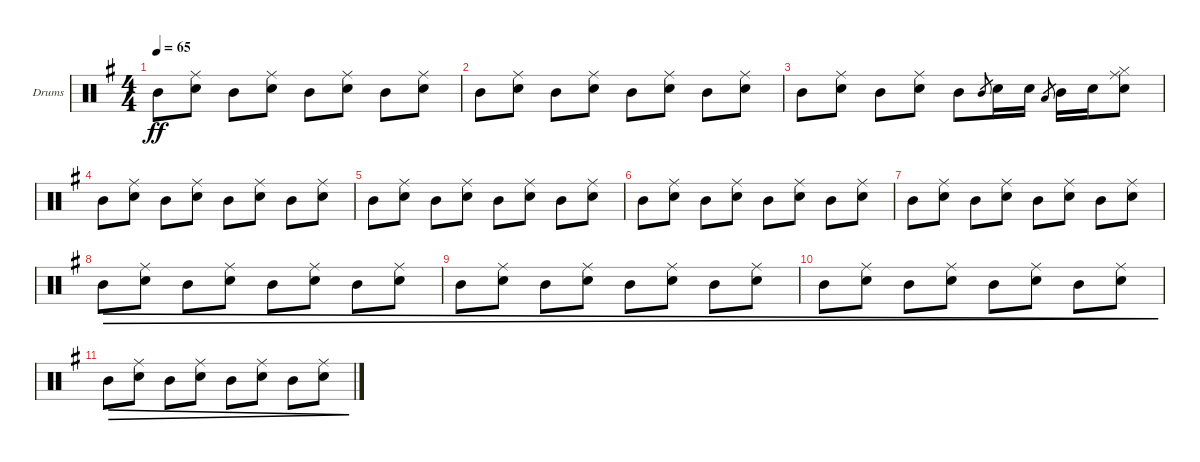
\defaultSystemsLayout 4
\bracketExtendMode groupsimilarinstruments
\firstSystemTrackNameOrientation horizontal
\otherSystemsTrackNameOrientation horizontal
\track ("Drumkit" "Drums") {instrument percussion}
\staff {score}
\articulation defaults
\ts (4 4)
\tempo 65
\clef neutral
\ks eminor "Mid Tom (hit)".8{dy ff}
("Snare (hit) 2" "Ride (middle)").8 "Mid Tom (hit)".8 ("Snare (hit) 2" "Ride (middle)").8 "Mid Tom (hit)".8 ("Snare (hit) 2" "Ride (middle)").8 "Mid Tom (hit)".8 ("Snare (hit) 2" "Ride (middle)").8 |
"Mid Tom (hit)".8 ("Snare (hit) 2" "Ride (middle)").8 "Mid Tom (hit)".8 ("Snare (hit) 2" "Ride (middle)").8 "Mid Tom (hit)".8 ("Snare (hit) 2" "Ride (middle)").8 "Mid Tom (hit)".8 ("Snare (hit) 2" "Ride (middle)").8 |
"Mid Tom (hit)".8 ("Snare (hit) 2" "Ride (middle)").8 "Mid Tom (hit)".8 ("Snare (hit) 2" "Ride (middle)").8 "Mid Tom (hit)".8 "Mid Tom (hit)".8{gr} "Snare (hit) 2".16 "Snare (hit) 2".16 "Low Tom (hit)".8{gr} "Mid Tom (hit)".16 "Snare (hit) 2".16 ("Snare (hit) 2" "Hi-Hat (closed)" "Ride (middle)").8 |
"Mid Tom (hit)".8 ("Snare (hit) 2" "Ride (middle)").8 "Mid Tom (hit)".8 ("Snare (hit) 2" "Ride (middle)").8 "Mid Tom (hit)".8 ("Snare (hit) 2" "Ride (middle)").8 "Mid Tom (hit)".8 ("Snare (hit) 2" "Ride (middle)").8 |
"Mid Tom (hit)".8 ("Snare (hit) 2" "Ride (middle)").8 "Mid Tom (hit)".8 ("Snare (hit) 2" "Ride (middle)").8 "Mid Tom (hit)".8 ("Snare (hit) 2" "Ride (middle)").8 "Mid Tom (hit)".8 ("Snare (hit) 2" "Ride (middle)").8 |
"Mid Tom (hit)".8 ("Snare (hit) 2" "Ride (middle)").8 "Mid Tom (hit)".8 ("Snare (hit) 2" "Ride (middle)").8 "Mid Tom (hit)".8 ("Snare (hit) 2" "Ride (middle)").8 "Mid Tom (hit)".8 ("Snare (hit) 2" "Ride (middle)").8 |
"Mid Tom (hit)".8 ("Snare (hit) 2" "Ride (middle)").8 "Mid Tom (hit)".8 ("Snare (hit) 2" "Ride (middle)").8 "Mid Tom (hit)".8 ("Snare (hit) 2" "Ride (middle)").8 "Mid Tom (hit)".8 ("Snare (hit) 2" "Ride (middle)").8 |
"Mid Tom (hit)".8{dec} ("Snare (hit) 2" "Ride (middle)").8{dec} "Mid Tom (hit)".8{dec} ("Snare (hit) 2" "Ride (middle)").8{dec} "Mid Tom (hit)".8{dec} ("Snare (hit) 2" "Ride (middle)").8{dec} "Mid Tom (hit)".8{dec} ("Snare (hit) 2" "Ride (middle)").8{dec} |
"Mid Tom (hit)".8{dec} ("Snare (hit) 2" "Ride (middle)").8{dec} "Mid Tom (hit)".8{dec} ("Snare (hit) 2" "Ride (middle)").8{dec} "Mid Tom (hit)".8{dec} ("Snare (hit) 2" "Ride (middle)").8{dec} "Mid Tom (hit)".8{dec} ("Snare (hit) 2" "Ride (middle)").8{dec} |
"Mid Tom (hit)".8{dec} ("Snare (hit) 2" "Ride (middle)").8{dec} "Mid Tom (hit)".8{dec} ("Snare (hit) 2" "Ride (middle)").8{dec} "Mid Tom (hit)".8{dec} ("Snare (hit) 2" "Ride (middle)").8{dec} "Mid Tom (hit)".8{dec} ("Snare (hit) 2" "Ride (middle)").8{dec} |
"Mid Tom (hit)".8{dec} ("Snare (hit) 2" "Ride (middle)").8{dec} "Mid Tom (hit)".8{dec} ("Snare (hit) 2" "Ride (middle)").8{dec} "Mid Tom (hit)".8{dec} ("Snare (hit) 2" "Ride (middle)").8{dec} "Mid Tom (hit)".8{dec} ("Snare (hit) 2" "Ride (middle)").8{dec}
